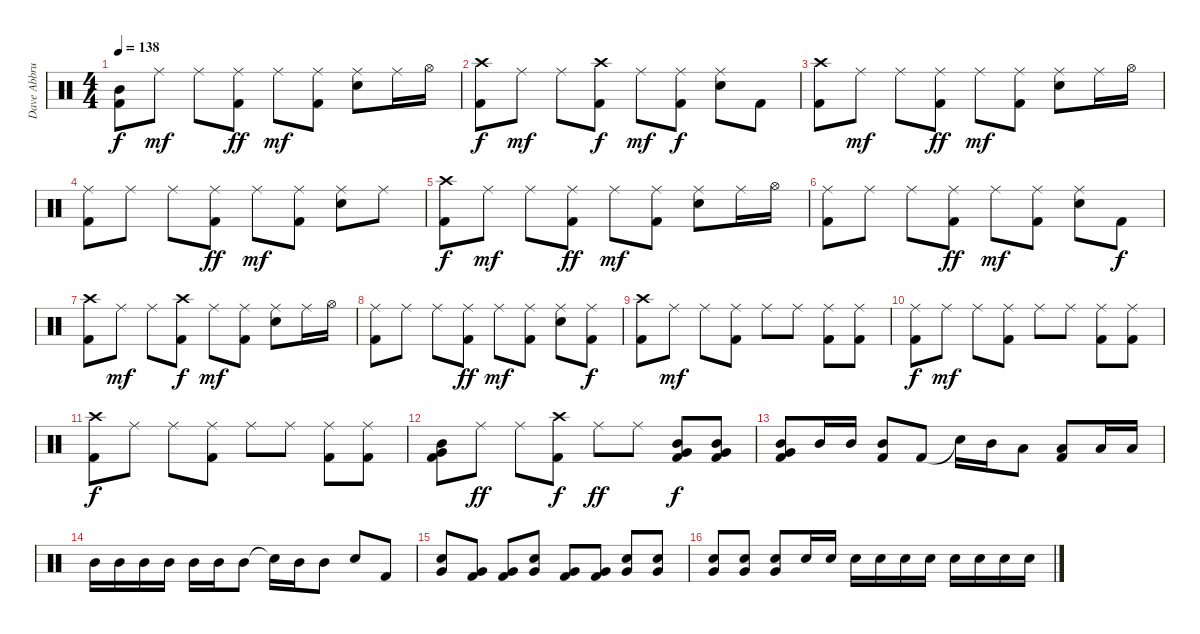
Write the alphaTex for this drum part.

\track ("Dave Abbruze - Drums" "Dave Abbru") {instrument percussion}
\staff {score}
\articulation defaults
\ts (4 4)
\tempo 138
\clef neutral
\ks c
("Mid Tom (hit)" "Kick (hit) 2").8{dy f} "Ride (middle)".8{dy mf} "Ride (middle)".8 ("Ride (middle)" "Kick (hit) 2").8{dy ff} "Ride (middle)".8{dy mf} ("Ride (middle)" "Kick (hit) 2").8 ("Ride (middle)" "Electric Snare (hit)").8 "Ride (middle)".16 "Hi-Hat (open)".16 |
("Crash high (hit)" "Kick (hit) 2").8{dy f} "Ride (middle)".8{dy mf} "Ride (middle)".8 ("Crash high (hit)" "Kick (hit) 2").8{dy f} "Ride (middle)".8{dy mf} ("Ride (middle)" "Kick (hit) 2").8{dy f} ("Ride (middle)" "Electric Snare (hit)").8 "Kick (hit) 2".8 |
("Crash high (hit)" "Kick (hit) 2").8 "Ride (middle)".8{dy mf} "Ride (middle)".8 ("Ride (middle)" "Kick (hit) 2").8{dy ff} "Ride (middle)".8{dy mf} ("Ride (middle)" "Kick (hit) 2").8 ("Ride (middle)" "Electric Snare (hit)").8 "Ride (middle)".16 "Hi-Hat (open)".16 |
("Ride (middle)" "Kick (hit) 2").8 "Ride (middle)".8 "Ride (middle)".8 ("Ride (middle)" "Kick (hit) 2").8{dy ff} "Ride (middle)".8{dy mf} ("Ride (middle)" "Kick (hit) 2").8 ("Ride (middle)" "Electric Snare (hit)").8 "Ride (middle)".8 |
("Crash high (hit)" "Kick (hit) 2").8{dy f} "Ride (middle)".8{dy mf} "Ride (middle)".8 ("Ride (middle)" "Kick (hit) 2").8{dy ff} "Ride (middle)".8{dy mf} ("Ride (middle)" "Kick (hit) 2").8 ("Ride (middle)" "Electric Snare (hit)").8 "Ride (middle)".16 "Hi-Hat (open)".16 |
("Ride (middle)" "Kick (hit) 2").8 "Ride (middle)".8 "Ride (middle)".8 ("Ride (middle)" "Kick (hit) 2").8{dy ff} "Ride (middle)".8{dy mf} ("Ride (middle)" "Kick (hit) 2").8 ("Ride (middle)" "Electric Snare (hit)").8 "Kick (hit) 2".8{dy f} |
("Crash high (hit)" "Kick (hit) 2").8 "Ride (middle)".8{dy mf} "Ride (middle)".8 ("Crash high (hit)" "Kick (hit) 2").8{dy f} "Ride (middle)".8{dy mf} ("Ride (middle)" "Kick (hit) 2").8 ("Ride (middle)" "Electric Snare (hit)").8 "Ride (middle)".16 "Hi-Hat (open)".16 |
("Ride (middle)" "Kick (hit) 2").8 "Ride (middle)".8 "Ride (middle)".8 ("Ride (middle)" "Kick (hit) 2").8{dy ff} "Ride (middle)".8{dy mf} ("Ride (middle)" "Kick (hit) 2").8 ("Ride (middle)" "Electric Snare (hit)").8 ("Ride (middle)" "Kick (hit) 2").8{dy f} |
("Crash high (hit)" "Kick (hit) 2").8 "Ride (middle)".8{dy mf} "Ride (middle)".8 ("Ride (middle)" "Kick (hit) 2").8 "Ride (middle)".8 "Ride (middle)".8 ("Ride (middle)" "Kick (hit) 2").8 ("Ride (middle)" "Kick (hit) 2").8 |
("Ride (middle)" "Kick (hit) 2").8{dy f} "Ride (middle)".8{dy mf} "Ride (middle)".8 ("Ride (middle)" "Kick (hit) 2").8 "Ride (middle)".8 "Ride (middle)".8 ("Ride (middle)" "Kick (hit) 2").8 ("Ride (middle)" "Kick (hit) 2").8 |
("Crash high (hit)" "Kick (hit) 2").8{dy f} "Ride (middle)".8 "Ride (middle)".8 ("Ride (middle)" "Kick (hit) 2").8 "Ride (middle)".8 "Ride (middle)".8 ("Ride (middle)" "Kick (hit) 2").8 ("Ride (middle)" "Kick (hit) 2").8 |
("Mid Tom (hit)" "Very Low Tom (hit)" "Kick (hit) 2").8 "Ride (middle)".8{dy ff} "Ride (middle)".8 ("Crash high (hit)" "Kick (hit) 2").8{dy f} "Ride (middle)".8{dy ff} "Ride (middle)".8 ("Mid Tom (hit)" "Very Low Tom (hit)" "Kick (hit) 2").8{dy f} ("Mid Tom (hit)" "Very Low Tom (hit)" "Kick (hit) 2").8 |
("Mid Tom (hit)" "Very Low Tom (hit)" "Kick (hit) 2").8 "Mid Tom (hit)".16 "Mid Tom (hit)".16 ("Mid Tom (hit)" "Kick (hit) 2").8 "Kick (hit) 2".8 "Snare (hit)"{t}.16 "Mid Tom (hit)".16 "Low Tom (hit)".8 ("Low Tom (hit)" "Kick (hit) 2").8 "Low Tom (hit)".16 "Low Tom (hit)".16 |
"Mid Tom (hit)".16 "Mid Tom (hit)".16 "Mid Tom (hit)".16 "Mid Tom (hit)".16 "Mid Tom (hit)".16 "Mid Tom (hit)".16 "Mid Tom (hit)".8 "Snare (hit)"{t}.16 "Mid Tom (hit)".16 "Mid Tom (hit)".8 "Electric Snare (hit)".8 "Kick (hit) 2".8 |
("Electric Snare (hit)" "Very Low Tom (hit)").8 ("Very Low Tom (hit)" "Kick (hit) 2").8 ("Very Low Tom (hit)" "Kick (hit) 2").8 ("Electric Snare (hit)" "Very Low Tom (hit)").8 ("Very Low Tom (hit)" "Kick (hit) 2").8 ("Very Low Tom (hit)" "Kick (hit) 2").8 ("Electric Snare (hit)" "Very Low Tom (hit)").8 ("Electric Snare (hit)" "Very Low Tom (hit)").8 |
("Electric Snare (hit)" "Very Low Tom (hit)").8 ("Electric Snare (hit)" "Very Low Tom (hit)").8 ("Electric Snare (hit)" "Very Low Tom (hit)").8 "Electric Snare (hit)".16 "Electric Snare (hit)".16 "Electric Snare (hit)".16 "Electric Snare (hit)".16 "Electric Snare (hit)".16 "Electric Snare (hit)".16 "Electric Snare (hit)".16 "Electric Snare (hit)".16 "Electric Snare (hit)".16 "Electric Snare (hit)".16
